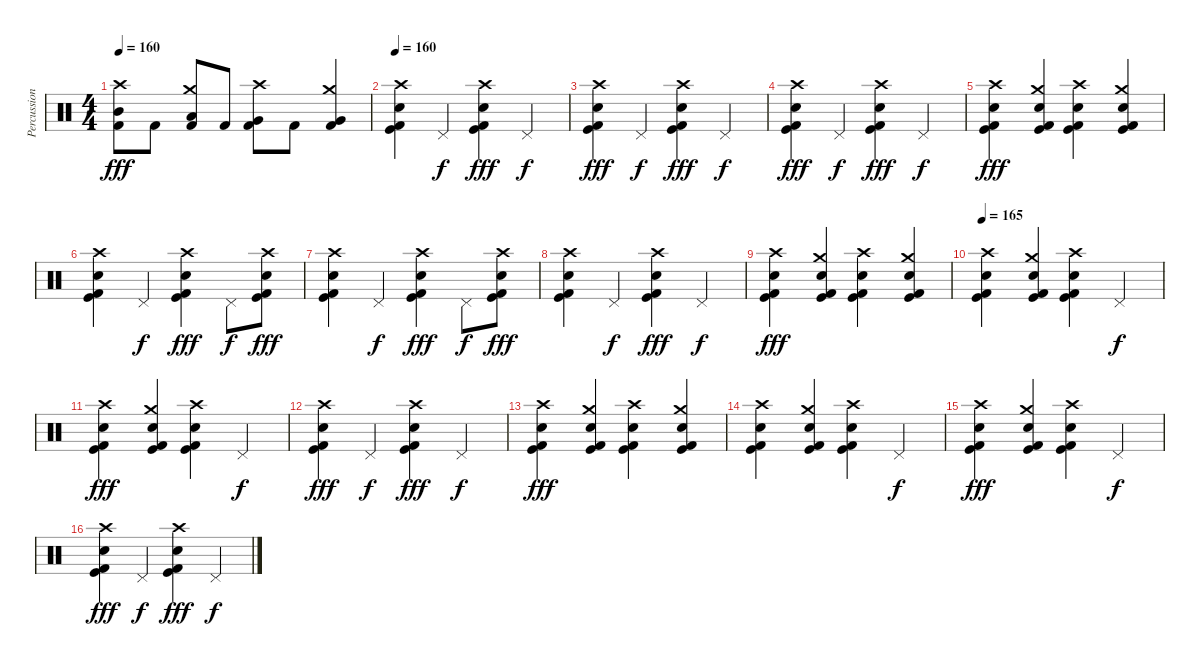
\track ("Percussion" "Percussion") {instrument percussion}
\staff {score}
\articulation defaults
\ts (4 4)
\tempo 160
\clef neutral
\ks c
("Crash high (hit)" "Mid Tom (hit)" "Kick (hit) 2").8{dy fff} "Kick (hit) 2".8 ("Crash medium (hit)" "Low Tom (hit)" "Kick (hit) 2").8 "Kick (hit) 2".8 ("Crash high (hit)" "Very Low Tom (hit)" "Kick (hit) 2").8 "Kick (hit) 2".8 ("Crash medium (hit)" "Very Low Tom (hit)" "Kick (hit) 2").4 |
\tempo 160
("Crash high (hit)" "Snare (hit) 2" "Kick (hit)" "Kick (hit) 2").4{volume 14} "Pedal Hi-Hat (hit)".4{dy f} ("Crash high (hit)" "Snare (hit) 2" "Kick (hit)" "Kick (hit) 2").4{dy fff} "Pedal Hi-Hat (hit)".4{dy f} |
("Crash high (hit)" "Snare (hit) 2" "Kick (hit)" "Kick (hit) 2").4{dy fff} "Pedal Hi-Hat (hit)".4{dy f} ("Crash high (hit)" "Snare (hit) 2" "Kick (hit)" "Kick (hit) 2").4{dy fff} "Pedal Hi-Hat (hit)".4{dy f} |
("Crash high (hit)" "Snare (hit) 2" "Kick (hit)" "Kick (hit) 2").4{dy fff} "Pedal Hi-Hat (hit)".4{dy f} ("Crash high (hit)" "Snare (hit) 2" "Kick (hit)" "Kick (hit) 2").4{dy fff} "Pedal Hi-Hat (hit)".4{dy f} |
("Crash high (hit)" "Snare (hit) 2" "Kick (hit)" "Kick (hit) 2").4{dy fff} ("Crash medium (hit)" "Snare (hit) 2" "Kick (hit)" "Kick (hit) 2").4 ("Crash high (hit)" "Snare (hit) 2" "Kick (hit)" "Kick (hit) 2").4 ("Crash medium (hit)" "Snare (hit) 2" "Kick (hit)" "Kick (hit) 2").4 |
("Crash high (hit)" "Snare (hit) 2" "Kick (hit)" "Kick (hit) 2").4 "Pedal Hi-Hat (hit)".4{dy f} ("Crash high (hit)" "Snare (hit) 2" "Kick (hit)" "Kick (hit) 2").4{dy fff} "Pedal Hi-Hat (hit)".8{dy f} ("Crash high (hit)" "Snare (hit) 2" "Kick (hit)" "Kick (hit) 2").8{dy fff} |
("Crash high (hit)" "Snare (hit) 2" "Kick (hit)" "Kick (hit) 2").4 "Pedal Hi-Hat (hit)".4{dy f} ("Crash high (hit)" "Snare (hit) 2" "Kick (hit)" "Kick (hit) 2").4{dy fff} "Pedal Hi-Hat (hit)".8{dy f} ("Crash high (hit)" "Snare (hit) 2" "Kick (hit)" "Kick (hit) 2").8{dy fff} |
("Crash high (hit)" "Snare (hit) 2" "Kick (hit)" "Kick (hit) 2").4 "Pedal Hi-Hat (hit)".4{dy f} ("Crash high (hit)" "Snare (hit) 2" "Kick (hit)" "Kick (hit) 2").4{dy fff} "Pedal Hi-Hat (hit)".4{dy f} |
("Crash high (hit)" "Snare (hit) 2" "Kick (hit)" "Kick (hit) 2").4{dy fff} ("Crash medium (hit)" "Snare (hit) 2" "Kick (hit)" "Kick (hit) 2").4 ("Crash high (hit)" "Snare (hit) 2" "Kick (hit)" "Kick (hit) 2").4 ("Crash medium (hit)" "Snare (hit) 2" "Kick (hit)" "Kick (hit) 2").4 |
\tempo 165
("Crash high (hit)" "Snare (hit) 2" "Kick (hit)" "Kick (hit) 2").4 ("Crash medium (hit)" "Snare (hit) 2" "Kick (hit)" "Kick (hit) 2").4 ("Crash high (hit)" "Snare (hit) 2" "Kick (hit)" "Kick (hit) 2").4 "Pedal Hi-Hat (hit)".4{dy f} |
("Crash high (hit)" "Snare (hit) 2" "Kick (hit)" "Kick (hit) 2").4{dy fff} ("Crash medium (hit)" "Snare (hit) 2" "Kick (hit)" "Kick (hit) 2").4 ("Crash high (hit)" "Snare (hit) 2" "Kick (hit)" "Kick (hit) 2").4 "Pedal Hi-Hat (hit)".4{dy f} |
("Crash high (hit)" "Snare (hit) 2" "Kick (hit)" "Kick (hit) 2").4{dy fff} "Pedal Hi-Hat (hit)".4{dy f} ("Crash high (hit)" "Snare (hit) 2" "Kick (hit)" "Kick (hit) 2").4{dy fff} "Pedal Hi-Hat (hit)".4{dy f} |
("Crash high (hit)" "Snare (hit) 2" "Kick (hit)" "Kick (hit) 2").4{dy fff} ("Crash medium (hit)" "Snare (hit) 2" "Kick (hit)" "Kick (hit) 2").4 ("Crash high (hit)" "Snare (hit) 2" "Kick (hit)" "Kick (hit) 2").4 ("Crash medium (hit)" "Snare (hit) 2" "Kick (hit)" "Kick (hit) 2").4 |
("Crash high (hit)" "Snare (hit) 2" "Kick (hit)" "Kick (hit) 2").4 ("Crash medium (hit)" "Snare (hit) 2" "Kick (hit)" "Kick (hit) 2").4 ("Crash high (hit)" "Snare (hit) 2" "Kick (hit)" "Kick (hit) 2").4 "Pedal Hi-Hat (hit)".4{dy f} |
("Crash high (hit)" "Snare (hit) 2" "Kick (hit)" "Kick (hit) 2").4{dy fff} ("Crash medium (hit)" "Snare (hit) 2" "Kick (hit)" "Kick (hit) 2").4 ("Crash high (hit)" "Snare (hit) 2" "Kick (hit)" "Kick (hit) 2").4 "Pedal Hi-Hat (hit)".4{dy f} |
("Crash high (hit)" "Snare (hit) 2" "Kick (hit)" "Kick (hit) 2").4{dy fff} "Pedal Hi-Hat (hit)".4{dy f} ("Crash high (hit)" "Snare (hit) 2" "Kick (hit)" "Kick (hit) 2").4{dy fff} "Pedal Hi-Hat (hit)".4{dy f}
